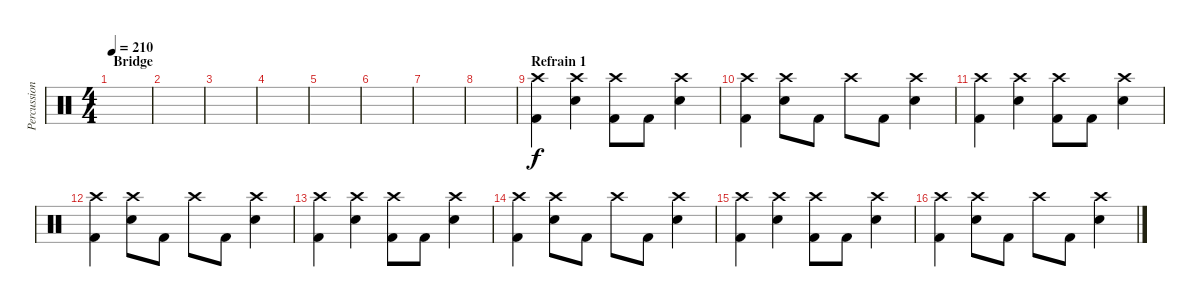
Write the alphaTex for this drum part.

\track ("Percussion" "Percussion") {instrument percussion}
\staff {score}
\articulation defaults
\ts (4 4)
\section ("" "Bridge")
\tempo 210
\clef neutral
\ks c
|
|
|
|
|
|
|
|
\section ("" "Refrain 1")
("Kick (hit) 2" "Crash high (hit)").4 ("Electric Snare (hit)" "Crash high (hit)").4 ("Kick (hit) 2" "Crash high (hit)").8 "Kick (hit) 2".8 ("Electric Snare (hit)" "Crash high (hit)").4 |
("Kick (hit) 2" "Crash high (hit)").4 ("Electric Snare (hit)" "Crash high (hit)").8 "Kick (hit) 2".8 "Crash high (hit)".8 "Kick (hit) 2".8 ("Electric Snare (hit)" "Crash high (hit)").4 |
("Kick (hit) 2" "Crash high (hit)").4 ("Electric Snare (hit)" "Crash high (hit)").4 ("Kick (hit) 2" "Crash high (hit)").8 "Kick (hit) 2".8 ("Electric Snare (hit)" "Crash high (hit)").4 |
("Kick (hit) 2" "Crash high (hit)").4 ("Electric Snare (hit)" "Crash high (hit)").8 "Kick (hit) 2".8 "Crash high (hit)".8 "Kick (hit) 2".8 ("Electric Snare (hit)" "Crash high (hit)").4 |
("Kick (hit) 2" "Crash high (hit)").4 ("Electric Snare (hit)" "Crash high (hit)").4 ("Kick (hit) 2" "Crash high (hit)").8 "Kick (hit) 2".8 ("Electric Snare (hit)" "Crash high (hit)").4 |
("Kick (hit) 2" "Crash high (hit)").4 ("Electric Snare (hit)" "Crash high (hit)").8 "Kick (hit) 2".8 "Crash high (hit)".8 "Kick (hit) 2".8 ("Electric Snare (hit)" "Crash high (hit)").4 |
("Kick (hit) 2" "Crash high (hit)").4 ("Electric Snare (hit)" "Crash high (hit)").4 ("Kick (hit) 2" "Crash high (hit)").8 "Kick (hit) 2".8 ("Electric Snare (hit)" "Crash high (hit)").4 |
("Kick (hit) 2" "Crash high (hit)").4 ("Electric Snare (hit)" "Crash high (hit)").8 "Kick (hit) 2".8 "Crash high (hit)".8 "Kick (hit) 2".8 ("Electric Snare (hit)" "Crash high (hit)").4
